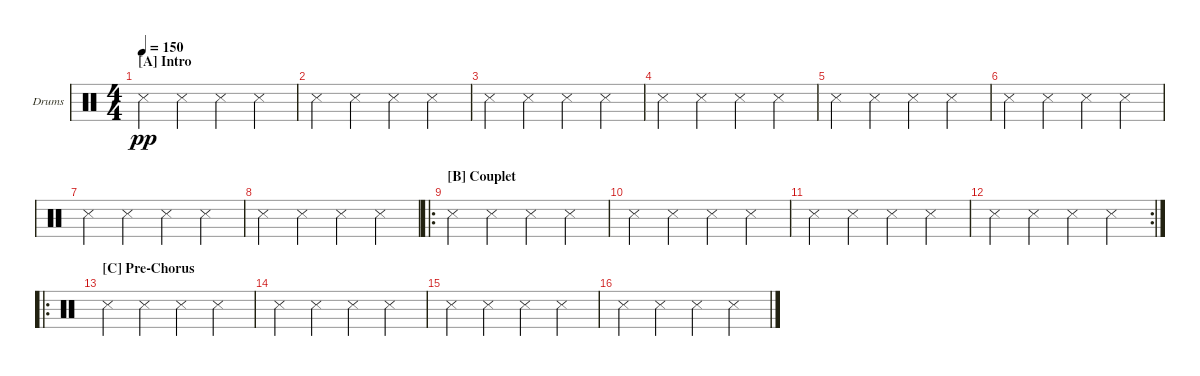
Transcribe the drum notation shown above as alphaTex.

\defaultSystemsLayout 4
\bracketExtendMode groupsimilarinstruments
\firstSystemTrackNameOrientation horizontal
\otherSystemsTrackNameOrientation horizontal
\track ("Drumkit" "Drums") {instrument percussion}
\staff {score}
\articulation defaults
\ts (4 4)
\section ("A" "Intro")
\ac
\tempo 150
\clef neutral
\scale
0.375465
\ks c "Snare (side stick) 3".4{dy pp} "Snare (side stick) 3".4 "Snare (side stick) 3".4 "Snare (side stick) 3".4
|
\scale
0.208178 "Snare (side stick) 3".4 "Snare (side stick) 3".4 "Snare (side stick) 3".4 "Snare (side stick) 3".4 |
\scale
0.208178 "Snare (side stick) 3".4 "Snare (side stick) 3".4 "Snare (side stick) 3".4 "Snare (side stick) 3".4 |
\scale
0.208178 "Snare (side stick) 3".4 "Snare (side stick) 3".4 "Snare (side stick) 3".4 "Snare (side stick) 3".4 |
\scale
0.25 "Snare (side stick) 3".4 "Snare (side stick) 3".4 "Snare (side stick) 3".4 "Snare (side stick) 3".4 |
\scale
0.25 "Snare (side stick) 3".4 "Snare (side stick) 3".4 "Snare (side stick) 3".4 "Snare (side stick) 3".4 |
\scale
0.25 "Snare (side stick) 3".4 "Snare (side stick) 3".4 "Snare (side stick) 3".4 "Snare (side stick) 3".4 |
\scale
0.25 "Snare (side stick) 3".4 "Snare (side stick) 3".4 "Snare (side stick) 3".4 "Snare (side stick) 3".4 |
\ro
\section ("B" "Couplet")
\scale
0.280992 "Snare (side stick) 3".4 "Snare (side stick) 3".4 "Snare (side stick) 3".4 "Snare (side stick) 3".4 |
\scale
0.231405 "Snare (side stick) 3".4 "Snare (side stick) 3".4 "Snare (side stick) 3".4 "Snare (side stick) 3".4 |
\scale
0.231405 "Snare (side stick) 3".4 "Snare (side stick) 3".4 "Snare (side stick) 3".4 "Snare (side stick) 3".4 |
\rc 2
\scale
0.256198 "Snare (side stick) 3".4 "Snare (side stick) 3".4 "Snare (side stick) 3".4 "Snare (side stick) 3".4 |
\ro
\section ("C" "Pre-Chorus")
\scale
0.288136 "Snare (side stick) 3".4 "Snare (side stick) 3".4 "Snare (side stick) 3".4 "Snare (side stick) 3".4 |
\scale
0.237288 "Snare (side stick) 3".4 "Snare (side stick) 3".4 "Snare (side stick) 3".4 "Snare (side stick) 3".4 |
\scale
0.237288 "Snare (side stick) 3".4 "Snare (side stick) 3".4 "Snare (side stick) 3".4 "Snare (side stick) 3".4 |
\scale
0.237288 "Snare (side stick) 3".4 "Snare (side stick) 3".4 "Snare (side stick) 3".4 "Snare (side stick) 3".4
